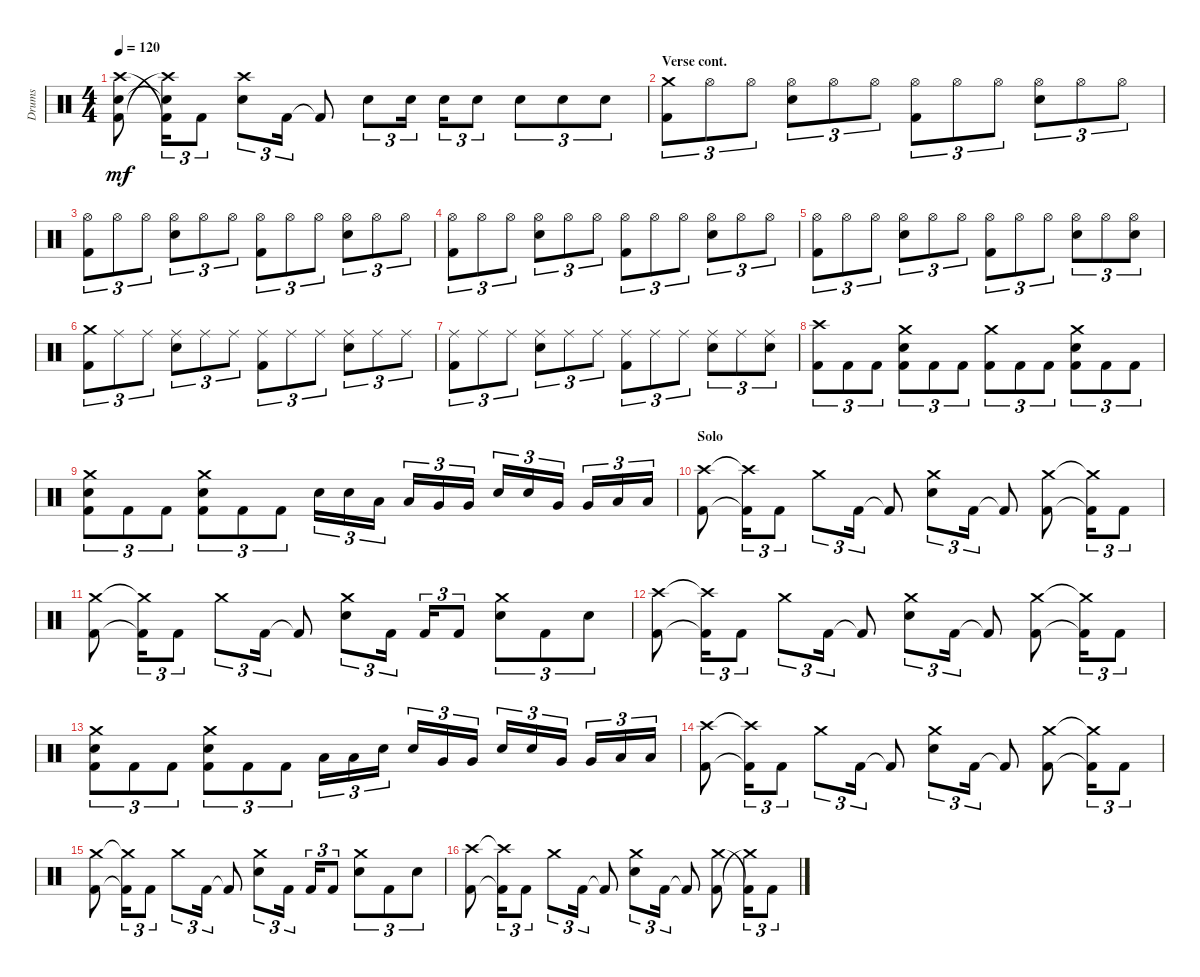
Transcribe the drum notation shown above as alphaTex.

\track ("Drums" "Drums") {instrument percussion}
\staff {score}
\articulation defaults
\ts (4 4)
\tempo 120
\clef neutral
\ks aminor
("Snare (hit) 2" "Kick (hit) 2" "Crash high (hit)").8{dy mf} ("Snare (hit) 2"{t} "Crash high (hit)"{t} "Kick (hit) 2"{t}).16{tu (3 2)} "Kick (hit) 2".8{tu (3 2)} ("Crash high (hit)" "Snare (hit) 2").8{tu (3 2)} "Kick (hit) 2".16{tu (3 2)} "Kick (hit) 2"{t}.8 "Snare (hit) 2".8{tu (3 2)} "Snare (hit) 2".16{tu (3 2)} "Snare (hit) 2".16{tu (3 2)} "Snare (hit) 2".8{tu (3 2)} "Snare (hit) 2".8{tu (3 2)} "Snare (hit) 2".8{tu (3 2)} "Snare (hit) 2".8{tu (3 2)} |
\section ("" "Verse cont.")
("Crash medium (hit)" "Kick (hit) 2").8{tu (3 2)} "Hi-Hat (open)".8{tu (3 2)} "Hi-Hat (open)".8{tu (3 2)} ("Hi-Hat (open)" "Snare (hit) 2").8{tu (3 2)} "Hi-Hat (open)".8{tu (3 2)} "Hi-Hat (open)".8{tu (3 2)} ("Kick (hit) 2" "Hi-Hat (open)").8{tu (3 2)} "Hi-Hat (open)".8{tu (3 2)} "Hi-Hat (open)".8{tu (3 2)} ("Hi-Hat (open)" "Snare (hit) 2").8{tu (3 2)} "Hi-Hat (open)".8{tu (3 2)} "Hi-Hat (open)".8{tu (3 2)} |
("Hi-Hat (open)" "Kick (hit) 2").8{tu (3 2)} "Hi-Hat (open)".8{tu (3 2)} "Hi-Hat (open)".8{tu (3 2)} ("Hi-Hat (open)" "Snare (hit) 2").8{tu (3 2)} "Hi-Hat (open)".8{tu (3 2)} "Hi-Hat (open)".8{tu (3 2)} ("Hi-Hat (open)" "Kick (hit) 2").8{tu (3 2)} "Hi-Hat (open)".8{tu (3 2)} "Hi-Hat (open)".8{tu (3 2)} ("Hi-Hat (open)" "Snare (hit) 2").8{tu (3 2)} "Hi-Hat (open)".8{tu (3 2)} "Hi-Hat (open)".8{tu (3 2)} |
("Hi-Hat (open)" "Kick (hit) 2").8{tu (3 2)} "Hi-Hat (open)".8{tu (3 2)} "Hi-Hat (open)".8{tu (3 2)} ("Snare (hit) 2" "Hi-Hat (open)").8{tu (3 2)} "Hi-Hat (open)".8{tu (3 2)} "Hi-Hat (open)".8{tu (3 2)} ("Kick (hit) 2" "Hi-Hat (open)").8{tu (3 2)} "Hi-Hat (open)".8{tu (3 2)} "Hi-Hat (open)".8{tu (3 2)} ("Snare (hit) 2" "Hi-Hat (open)").8{tu (3 2)} "Hi-Hat (open)".8{tu (3 2)} "Hi-Hat (open)".8{tu (3 2)} |
("Kick (hit) 2" "Hi-Hat (open)").8{tu (3 2)} "Hi-Hat (open)".8{tu (3 2)} "Hi-Hat (open)".8{tu (3 2)} ("Hi-Hat (open)" "Snare (hit) 2").8{tu (3 2)} "Hi-Hat (open)".8{tu (3 2)} "Hi-Hat (open)".8{tu (3 2)} ("Kick (hit) 2" "Hi-Hat (open)").8{tu (3 2)} "Hi-Hat (open)".8{tu (3 2)} "Hi-Hat (open)".8{tu (3 2)} ("Hi-Hat (open)" "Snare (hit) 2").8{tu (3 2)} "Hi-Hat (open)".8{tu (3 2)} ("Snare (hit) 2" "Hi-Hat (open)").8{tu (3 2)} |
("Crash medium (hit)" "Kick (hit) 2").8{tu (3 2)} "Ride (middle)".8{tu (3 2)} "Ride (middle)".8{tu (3 2)} ("Snare (hit) 2" "Ride (middle)").8{tu (3 2)} "Ride (middle)".8{tu (3 2)} "Ride (middle)".8{tu (3 2)} ("Kick (hit) 2" "Ride (middle)").8{tu (3 2)} "Ride (middle)".8{tu (3 2)} "Ride (middle)".8{tu (3 2)} ("Snare (hit) 2" "Ride (middle)").8{tu (3 2)} "Ride (middle)".8{tu (3 2)} "Ride (middle)".8{tu (3 2)} |
("Kick (hit) 2" "Ride (middle)").8{tu (3 2)} "Ride (middle)".8{tu (3 2)} "Ride (middle)".8{tu (3 2)} ("Snare (hit) 2" "Ride (middle)").8{tu (3 2)} "Ride (middle)".8{tu (3 2)} "Ride (middle)".8{tu (3 2)} ("Kick (hit) 2" "Ride (middle)").8{tu (3 2)} "Ride (middle)".8{tu (3 2)} "Ride (middle)".8{tu (3 2)} ("Ride (middle)" "Snare (hit) 2").8{tu (3 2)} "Ride (middle)".8{tu (3 2)} ("Snare (hit) 2" "Ride (middle)").8{tu (3 2)} |
("Crash high (hit)" "Kick (hit) 2").8{tu (3 2)} "Kick (hit) 2".8{tu (3 2)} "Kick (hit) 2".8{tu (3 2)} ("Kick (hit) 2" "Snare (hit) 2" "Crash medium (hit)").8{tu (3 2)} "Kick (hit) 2".8{tu (3 2)} "Kick (hit) 2".8{tu (3 2)} ("Kick (hit) 2" "Crash medium (hit)").8{tu (3 2)} "Kick (hit) 2".8{tu (3 2)} "Kick (hit) 2".8{tu (3 2)} ("Snare (hit) 2" "Kick (hit) 2" "Crash medium (hit)").8{tu (3 2)} "Kick (hit) 2".8{tu (3 2)} "Kick (hit) 2".8{tu (3 2)} |
("Kick (hit) 2" "Snare (hit) 2" "Crash medium (hit)").8{tu (3 2)} "Kick (hit) 2".8{tu (3 2)} "Kick (hit) 2".8{tu (3 2)} ("Kick (hit) 2" "Snare (hit) 2" "Crash medium (hit)").8{tu (3 2)} "Kick (hit) 2".8{tu (3 2)} "Kick (hit) 2".8{tu (3 2)} "Snare (hit) 2".16{tu (3 2)} "Snare (hit) 2".16{tu (3 2)} "Low Tom (hit)".16{tu (3 2)} "Low Tom (hit)".16{tu (3 2)} "Very Low Tom (hit)".16{tu (3 2)} "Very Low Tom (hit)".16{tu (3 2)} "Snare (hit) 2".16{tu (3 2)} "Snare (hit) 2".16{tu (3 2)} "Very Low Tom (hit)".16{tu (3 2)} "Very Low Tom (hit)".16{tu (3 2)} "Low Floor Tom (hit)".16{tu (3 2)} "Low Floor Tom (hit)".16{tu (3 2)} |
\section ("" "Solo")
("Crash high (hit)" "Kick (hit) 2").8 ("Crash high (hit)"{t} "Kick (hit) 2"{t}).16{tu (3 2)} "Kick (hit) 2".8{tu (3 2)} "Crash medium (hit)".8{tu (3 2)} "Kick (hit) 2".16{tu (3 2)} "Kick (hit) 2"{t}.8 ("Crash medium (hit)" "Snare (hit) 2").8{tu (3 2)} "Kick (hit) 2".16{tu (3 2)} "Kick (hit) 2"{t}.8 ("Kick (hit) 2" "Crash medium (hit)").8 ("Kick (hit) 2"{t} "Crash medium (hit)"{t}).16{tu (3 2)} "Kick (hit) 2".8{tu (3 2)} |
("Crash medium (hit)" "Kick (hit) 2").8 ("Crash medium (hit)"{t} "Kick (hit) 2"{t}).16{tu (3 2)} "Kick (hit) 2".8{tu (3 2)} "Crash medium (hit)".8{tu (3 2)} "Kick (hit) 2".16{tu (3 2)} "Kick (hit) 2"{t}.8 ("Crash medium (hit)" "Snare (hit) 2").8{tu (3 2)} "Kick (hit) 2".16{tu (3 2)} "Kick (hit) 2".16{tu (3 2)} "Kick (hit) 2".8{tu (3 2)} ("Snare (hit) 2" "Crash medium (hit)").8{tu (3 2)} "Kick (hit) 2".8{tu (3 2)} "Snare (hit) 2".8{tu (3 2)} |
("Kick (hit) 2" "Crash high (hit)").8 ("Kick (hit) 2"{t} "Crash high (hit)"{t}).16{tu (3 2)} "Kick (hit) 2".8{tu (3 2)} "Crash medium (hit)".8{tu (3 2)} "Kick (hit) 2".16{tu (3 2)} "Kick (hit) 2"{t}.8 ("Crash medium (hit)" "Snare (hit) 2").8{tu (3 2)} "Kick (hit) 2".16{tu (3 2)} "Kick (hit) 2"{t}.8 ("Crash medium (hit)" "Kick (hit) 2").8 ("Crash medium (hit)"{t} "Kick (hit) 2"{t}).16{tu (3 2)} "Kick (hit) 2".8{tu (3 2)} |
("Crash medium (hit)" "Kick (hit) 2" "Snare (hit) 2").8{tu (3 2)} "Kick (hit) 2".8{tu (3 2)} "Kick (hit) 2".8{tu (3 2)} ("Crash medium (hit)" "Snare (hit) 2" "Kick (hit) 2").8{tu (3 2)} "Kick (hit) 2".8{tu (3 2)} "Kick (hit) 2".8{tu (3 2)} "Low Tom (hit)".16{tu (3 2)} "Low Tom (hit)".16{tu (3 2)} "Snare (hit) 2".16{tu (3 2)} "Snare (hit) 2".16{tu (3 2)} "Very Low Tom (hit)".16{tu (3 2)} "Very Low Tom (hit)".16{tu (3 2)} "Snare (hit) 2".16{tu (3 2)} "Snare (hit) 2".16{tu (3 2)} "Very Low Tom (hit)".16{tu (3 2)} "Very Low Tom (hit)".16{tu (3 2)} "Low Floor Tom (hit)".16{tu (3 2)} "Low Floor Tom (hit)".16{tu (3 2)} |
("Crash high (hit)" "Kick (hit) 2").8 ("Crash high (hit)"{t} "Kick (hit) 2"{t}).16{tu (3 2)} "Kick (hit) 2".8{tu (3 2)} "Crash medium (hit)".8{tu (3 2)} "Kick (hit) 2".16{tu (3 2)} "Kick (hit) 2"{t}.8 ("Crash medium (hit)" "Snare (hit) 2").8{tu (3 2)} "Kick (hit) 2".16{tu (3 2)} "Kick (hit) 2"{t}.8 ("Kick (hit) 2" "Crash medium (hit)").8 ("Kick (hit) 2"{t} "Crash medium (hit)"{t}).16{tu (3 2)} "Kick (hit) 2".8{tu (3 2)} |
("Crash medium (hit)" "Kick (hit) 2").8 ("Crash medium (hit)"{t} "Kick (hit) 2"{t}).16{tu (3 2)} "Kick (hit) 2".8{tu (3 2)} "Crash medium (hit)".8{tu (3 2)} "Kick (hit) 2".16{tu (3 2)} "Kick (hit) 2"{t}.8 ("Snare (hit) 2" "Crash medium (hit)").8{tu (3 2)} "Kick (hit) 2".16{tu (3 2)} "Kick (hit) 2".16{tu (3 2)} "Kick (hit) 2".8{tu (3 2)} ("Crash medium (hit)" "Snare (hit) 2").8{tu (3 2)} "Kick (hit) 2".8{tu (3 2)} "Snare (hit) 2".8{tu (3 2)} |
("Kick (hit) 2" "Crash high (hit)").8 ("Kick (hit) 2"{t} "Crash high (hit)"{t}).16{tu (3 2)} "Kick (hit) 2".8{tu (3 2)} "Crash medium (hit)".8{tu (3 2)} "Kick (hit) 2".16{tu (3 2)} "Kick (hit) 2"{t}.8 ("Crash medium (hit)" "Snare (hit) 2").8{tu (3 2)} "Kick (hit) 2".16{tu (3 2)} "Kick (hit) 2"{t}.8 ("Crash medium (hit)" "Kick (hit) 2").8 ("Kick (hit) 2"{t} "Crash medium (hit)"{t}).16{tu (3 2)} "Kick (hit) 2".8{tu (3 2)}
